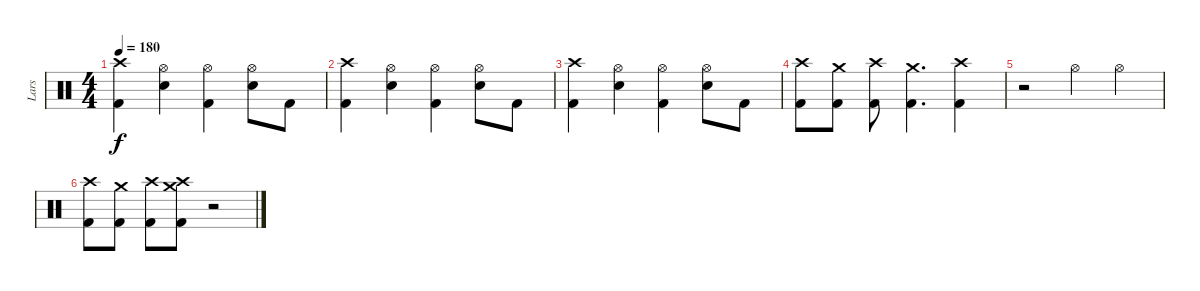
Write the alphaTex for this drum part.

\track ("Lars" "Lars") {instrument percussion}
\staff {score}
\articulation defaults
\ts (4 4)
\tempo 180
\clef neutral
\ks c
("Crash high (hit)" "Kick (hit) 2").4{dy f} ("Hi-Hat (open)" "Electric Snare (hit)").4 ("Hi-Hat (open)" "Kick (hit) 2").4 ("Hi-Hat (open)" "Electric Snare (hit)").8 "Kick (hit) 2".8 |
("Crash high (hit)" "Kick (hit) 2").4 ("Hi-Hat (open)" "Electric Snare (hit)").4 ("Hi-Hat (open)" "Kick (hit) 2").4 ("Hi-Hat (open)" "Electric Snare (hit)").8 "Kick (hit) 2".8 |
("Crash high (hit)" "Kick (hit) 2").4 ("Hi-Hat (open)" "Electric Snare (hit)").4 ("Hi-Hat (open)" "Kick (hit) 2").4 ("Hi-Hat (open)" "Electric Snare (hit)").8 "Kick (hit) 2".8 |
("Crash high (hit)" "Kick (hit) 2").8 ("Crash medium (hit)" "Kick (hit) 2").8 ("Crash high (hit)" "Kick (hit) 2").8 ("Crash medium (hit)" "Kick (hit) 2").4{d} ("Crash high (hit)" "Kick (hit) 2").4 |
r.2 "Hi-Hat (open)".4 "Hi-Hat (open)".4 |
("Crash high (hit)" "Kick (hit) 2").8 ("Crash medium (hit)" "Kick (hit) 2").8 ("Crash high (hit)" "Kick (hit) 2").8 ("Crash high (hit)" "Crash medium (hit)" "Kick (hit) 2").8 r.2
